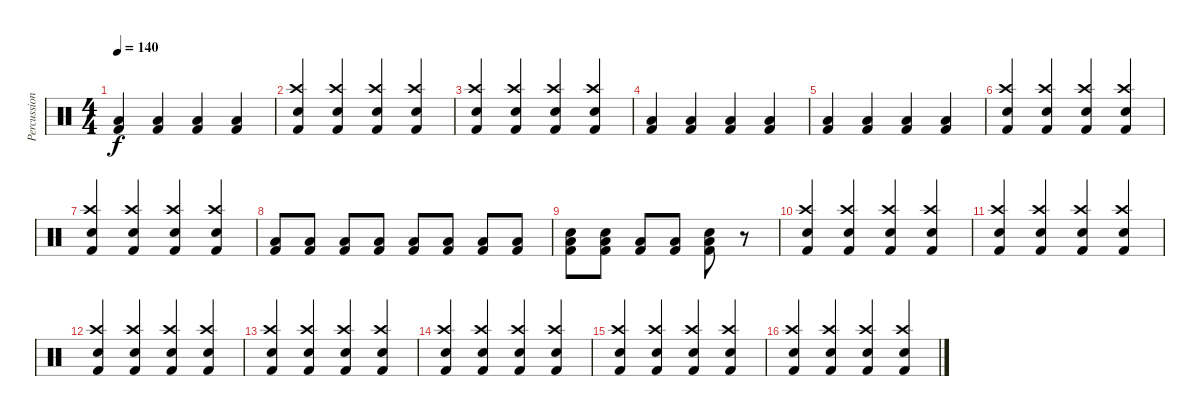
\track ("Percussion" "Percussion") {instrument percussion}
\staff {score}
\articulation defaults
\ts (4 4)
\tempo 140
\clef neutral
\ks c
("Low Tom (hit)" "Kick (hit) 2").4{dy f} ("Low Tom (hit)" "Kick (hit) 2").4 ("Low Tom (hit)" "Kick (hit) 2").4 ("Low Tom (hit)" "Kick (hit) 2").4 |
("Crash high (hit)" "Electric Snare (hit)" "Kick (hit) 2").4 ("Crash high (hit)" "Electric Snare (hit)" "Kick (hit) 2").4 ("Crash high (hit)" "Electric Snare (hit)" "Kick (hit) 2").4 ("Crash high (hit)" "Electric Snare (hit)" "Kick (hit) 2").4 |
("Crash high (hit)" "Electric Snare (hit)" "Kick (hit) 2").4 ("Crash high (hit)" "Electric Snare (hit)" "Kick (hit) 2").4 ("Crash high (hit)" "Electric Snare (hit)" "Kick (hit) 2").4 ("Crash high (hit)" "Electric Snare (hit)" "Kick (hit) 2").4 |
("Low Tom (hit)" "Kick (hit) 2").4 ("Low Tom (hit)" "Kick (hit) 2").4 ("Low Tom (hit)" "Kick (hit) 2").4 ("Low Tom (hit)" "Kick (hit) 2").4 |
("Low Tom (hit)" "Kick (hit) 2").4 ("Low Tom (hit)" "Kick (hit) 2").4 ("Low Tom (hit)" "Kick (hit) 2").4 ("Low Tom (hit)" "Kick (hit) 2").4 |
("Crash high (hit)" "Electric Snare (hit)" "Kick (hit) 2").4 ("Crash high (hit)" "Electric Snare (hit)" "Kick (hit) 2").4 ("Crash high (hit)" "Electric Snare (hit)" "Kick (hit) 2").4 ("Crash high (hit)" "Electric Snare (hit)" "Kick (hit) 2").4 |
("Crash high (hit)" "Electric Snare (hit)" "Kick (hit) 2").4 ("Crash high (hit)" "Electric Snare (hit)" "Kick (hit) 2").4 ("Crash high (hit)" "Electric Snare (hit)" "Kick (hit) 2").4 ("Crash high (hit)" "Electric Snare (hit)" "Kick (hit) 2").4 |
("Low Tom (hit)" "Kick (hit) 2").8 ("Low Tom (hit)" "Kick (hit) 2").8 ("Low Tom (hit)" "Kick (hit) 2").8 ("Low Tom (hit)" "Kick (hit) 2").8 ("Low Tom (hit)" "Kick (hit) 2").8 ("Low Tom (hit)" "Kick (hit) 2").8 ("Low Tom (hit)" "Kick (hit) 2").8 ("Low Tom (hit)" "Kick (hit) 2").8 |
("Electric Snare (hit)" "Low Tom (hit)" "Kick (hit) 2").8 ("Electric Snare (hit)" "Low Tom (hit)" "Kick (hit) 2").8 ("Low Tom (hit)" "Kick (hit) 2").8 ("Low Tom (hit)" "Kick (hit) 2").8 ("Electric Snare (hit)" "Low Tom (hit)" "Kick (hit) 2").8 r.8 |
("Crash high (hit)" "Electric Snare (hit)" "Kick (hit) 2").4 ("Crash high (hit)" "Electric Snare (hit)" "Kick (hit) 2").4 ("Crash high (hit)" "Electric Snare (hit)" "Kick (hit) 2").4 ("Crash high (hit)" "Electric Snare (hit)" "Kick (hit) 2").4 |
("Crash high (hit)" "Electric Snare (hit)" "Kick (hit) 2").4 ("Crash high (hit)" "Electric Snare (hit)" "Kick (hit) 2").4 ("Crash high (hit)" "Electric Snare (hit)" "Kick (hit) 2").4 ("Crash high (hit)" "Electric Snare (hit)" "Kick (hit) 2").4 |
("Crash high (hit)" "Electric Snare (hit)" "Kick (hit) 2").4 ("Crash high (hit)" "Electric Snare (hit)" "Kick (hit) 2").4 ("Crash high (hit)" "Electric Snare (hit)" "Kick (hit) 2").4 ("Crash high (hit)" "Electric Snare (hit)" "Kick (hit) 2").4 |
("Crash high (hit)" "Electric Snare (hit)" "Kick (hit) 2").4 ("Crash high (hit)" "Electric Snare (hit)" "Kick (hit) 2").4 ("Crash high (hit)" "Electric Snare (hit)" "Kick (hit) 2").4 ("Crash high (hit)" "Electric Snare (hit)" "Kick (hit) 2").4 |
("Crash high (hit)" "Electric Snare (hit)" "Kick (hit) 2").4 ("Crash high (hit)" "Electric Snare (hit)" "Kick (hit) 2").4 ("Crash high (hit)" "Electric Snare (hit)" "Kick (hit) 2").4 ("Crash high (hit)" "Electric Snare (hit)" "Kick (hit) 2").4 |
("Crash high (hit)" "Electric Snare (hit)" "Kick (hit) 2").4 ("Crash high (hit)" "Electric Snare (hit)" "Kick (hit) 2").4 ("Crash high (hit)" "Electric Snare (hit)" "Kick (hit) 2").4 ("Crash high (hit)" "Electric Snare (hit)" "Kick (hit) 2").4 |
("Crash high (hit)" "Electric Snare (hit)" "Kick (hit) 2").4 ("Crash high (hit)" "Electric Snare (hit)" "Kick (hit) 2").4 ("Crash high (hit)" "Electric Snare (hit)" "Kick (hit) 2").4 ("Crash high (hit)" "Electric Snare (hit)" "Kick (hit) 2").4
